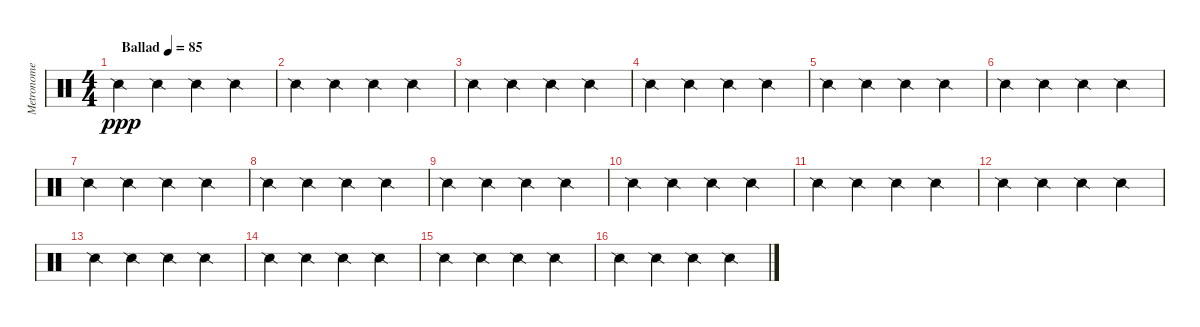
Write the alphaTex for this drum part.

\track ("Metronome" "Metronome") {instrument percussion}
\staff {score}
\articulation defaults
\ts (4 4)
\tempo (85 "Ballad")
\clef neutral
\ks c "Snare (side stick) 2".4{dy ppp} "Snare (side stick) 2".4 "Snare (side stick) 2".4 "Snare (side stick) 2".4
|
"Snare (side stick) 2".4 "Snare (side stick) 2".4 "Snare (side stick) 2".4 "Snare (side stick) 2".4 |
"Snare (side stick) 2".4 "Snare (side stick) 2".4 "Snare (side stick) 2".4 "Snare (side stick) 2".4 |
"Snare (side stick) 2".4 "Snare (side stick) 2".4 "Snare (side stick) 2".4 "Snare (side stick) 2".4 |
"Snare (side stick) 2".4 "Snare (side stick) 2".4 "Snare (side stick) 2".4 "Snare (side stick) 2".4 |
"Snare (side stick) 2".4 "Snare (side stick) 2".4 "Snare (side stick) 2".4 "Snare (side stick) 2".4 |
"Snare (side stick) 2".4 "Snare (side stick) 2".4 "Snare (side stick) 2".4 "Snare (side stick) 2".4 |
"Snare (side stick) 2".4 "Snare (side stick) 2".4 "Snare (side stick) 2".4 "Snare (side stick) 2".4 |
"Snare (side stick) 2".4 "Snare (side stick) 2".4 "Snare (side stick) 2".4 "Snare (side stick) 2".4 |
"Snare (side stick) 2".4 "Snare (side stick) 2".4 "Snare (side stick) 2".4 "Snare (side stick) 2".4 |
"Snare (side stick) 2".4 "Snare (side stick) 2".4 "Snare (side stick) 2".4 "Snare (side stick) 2".4 |
"Snare (side stick) 2".4 "Snare (side stick) 2".4 "Snare (side stick) 2".4 "Snare (side stick) 2".4 |
"Snare (side stick) 2".4 "Snare (side stick) 2".4 "Snare (side stick) 2".4 "Snare (side stick) 2".4 |
"Snare (side stick) 2".4 "Snare (side stick) 2".4 "Snare (side stick) 2".4 "Snare (side stick) 2".4 |
"Snare (side stick) 2".4 "Snare (side stick) 2".4 "Snare (side stick) 2".4 "Snare (side stick) 2".4 |
"Snare (side stick) 2".4 "Snare (side stick) 2".4 "Snare (side stick) 2".4 "Snare (side stick) 2".4
